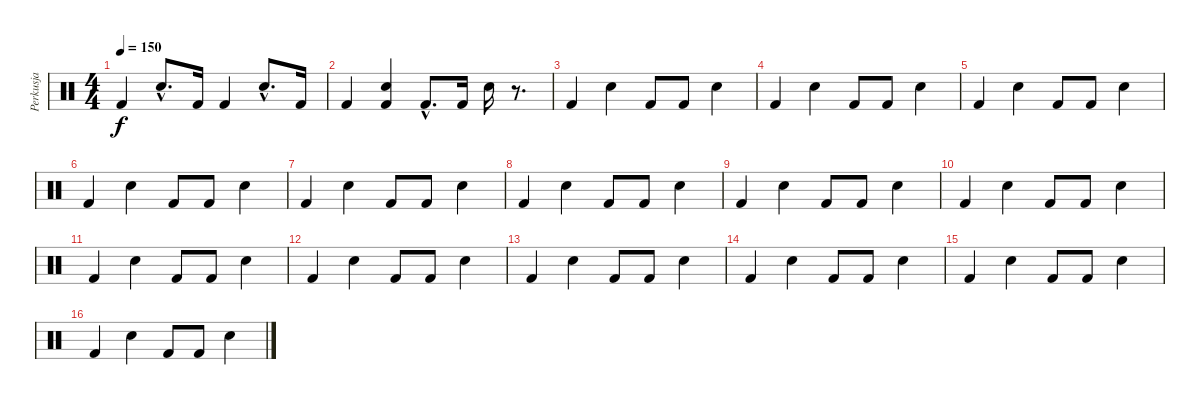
\track ("Perkusja" "Perkusja") {instrument percussion}
\staff {score}
\articulation defaults
\ts (4 4)
\tempo 150
\clef neutral
\ks c "Kick (hit) 2".4{dy f} "Electric Snare (hit)"{hac}.8{d} "Kick (hit) 2".16 "Kick (hit) 2".4 "Electric Snare (hit)"{hac}.8{d} "Kick (hit) 2".16
|
"Kick (hit) 2".4 ("Electric Snare (hit)" "Kick (hit) 2").4 "Kick (hit) 2"{hac}.8{d} "Kick (hit) 2".16 "Electric Snare (hit)".16 r.8{d} |
"Kick (hit) 2".4 "Electric Snare (hit)".4 "Kick (hit) 2".8 "Kick (hit) 2".8 "Electric Snare (hit)".4 |
"Kick (hit) 2".4 "Electric Snare (hit)".4 "Kick (hit) 2".8 "Kick (hit) 2".8 "Electric Snare (hit)".4 |
"Kick (hit) 2".4 "Electric Snare (hit)".4 "Kick (hit) 2".8 "Kick (hit) 2".8 "Electric Snare (hit)".4 |
"Kick (hit) 2".4 "Electric Snare (hit)".4 "Kick (hit) 2".8 "Kick (hit) 2".8 "Electric Snare (hit)".4 |
"Kick (hit) 2".4 "Electric Snare (hit)".4 "Kick (hit) 2".8 "Kick (hit) 2".8 "Electric Snare (hit)".4 |
"Kick (hit) 2".4 "Electric Snare (hit)".4 "Kick (hit) 2".8 "Kick (hit) 2".8 "Electric Snare (hit)".4 |
"Kick (hit) 2".4 "Electric Snare (hit)".4 "Kick (hit) 2".8 "Kick (hit) 2".8 "Electric Snare (hit)".4 |
"Kick (hit) 2".4 "Electric Snare (hit)".4 "Kick (hit) 2".8 "Kick (hit) 2".8 "Electric Snare (hit)".4 |
"Kick (hit) 2".4 "Electric Snare (hit)".4 "Kick (hit) 2".8 "Kick (hit) 2".8 "Electric Snare (hit)".4 |
"Kick (hit) 2".4 "Electric Snare (hit)".4 "Kick (hit) 2".8 "Kick (hit) 2".8 "Electric Snare (hit)".4 |
"Kick (hit) 2".4 "Electric Snare (hit)".4 "Kick (hit) 2".8 "Kick (hit) 2".8 "Electric Snare (hit)".4 |
"Kick (hit) 2".4 "Electric Snare (hit)".4 "Kick (hit) 2".8 "Kick (hit) 2".8 "Electric Snare (hit)".4 |
"Kick (hit) 2".4 "Electric Snare (hit)".4 "Kick (hit) 2".8 "Kick (hit) 2".8 "Electric Snare (hit)".4 |
"Kick (hit) 2".4 "Electric Snare (hit)".4 "Kick (hit) 2".8 "Kick (hit) 2".8 "Electric Snare (hit)".4
